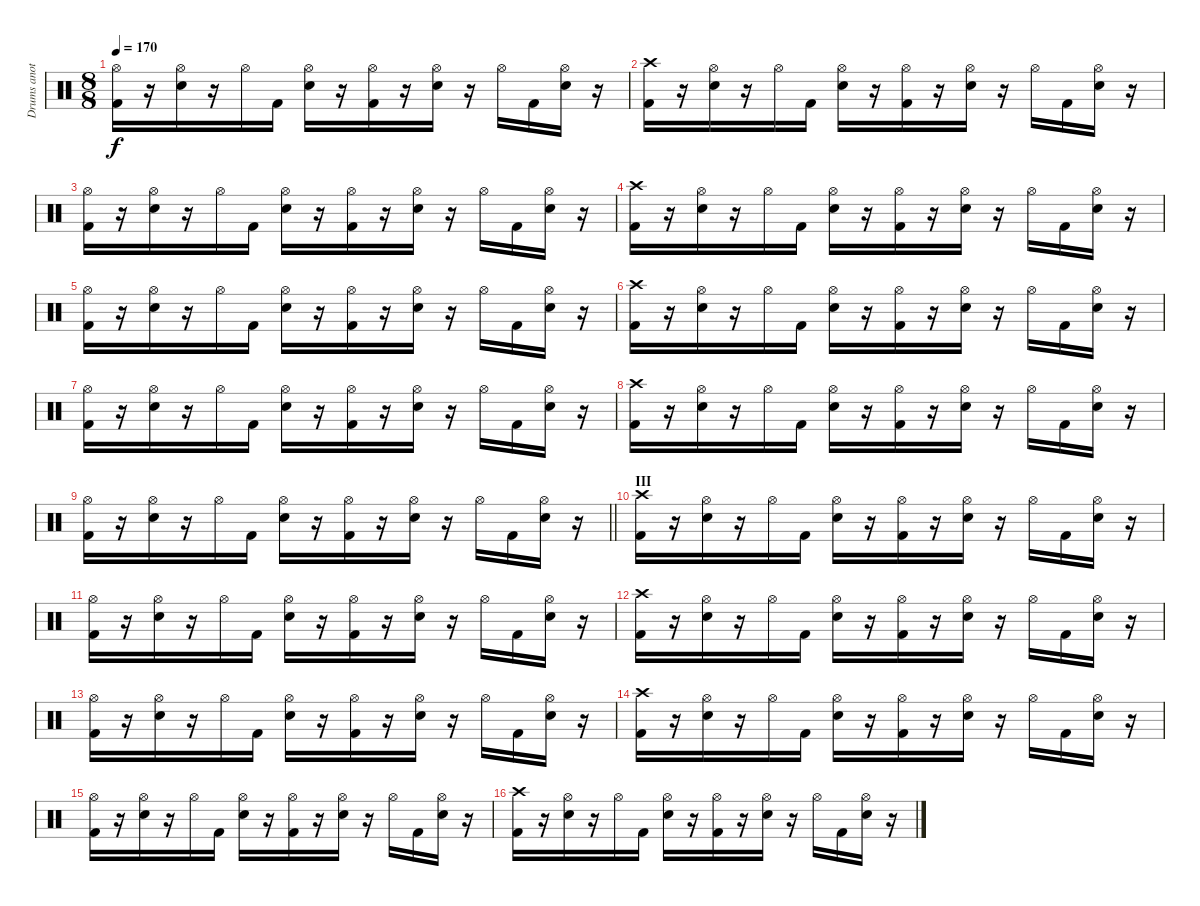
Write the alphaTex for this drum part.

\track ("Drums another version" "Drums anot") {mute instrument percussion}
\staff {score}
\articulation defaults
\ts (8 8)
\tempo 170
\clef neutral
\ks c
("Hi-Hat (open)" "Kick (hit) 2").16{dy f} r.16 ("Hi-Hat (open)" "Snare (hit) 2").16 r.16 "Hi-Hat (open)".16 "Kick (hit) 2".16 ("Hi-Hat (open)" "Snare (hit) 2").16 r.16 ("Hi-Hat (open)" "Kick (hit) 2").16 r.16 ("Hi-Hat (open)" "Snare (hit) 2").16 r.16 "Hi-Hat (open)".16 "Kick (hit) 2".16 ("Hi-Hat (open)" "Snare (hit) 2").16 r.16 |
("Crash high (hit)" "Kick (hit) 2").16 r.16 ("Hi-Hat (open)" "Snare (hit) 2").16 r.16 "Hi-Hat (open)".16 "Kick (hit) 2".16 ("Hi-Hat (open)" "Snare (hit) 2").16 r.16 ("Hi-Hat (open)" "Kick (hit) 2").16 r.16 ("Hi-Hat (open)" "Snare (hit) 2").16 r.16 "Hi-Hat (open)".16 "Kick (hit) 2".16 ("Hi-Hat (open)" "Snare (hit) 2").16 r.16 |
("Hi-Hat (open)" "Kick (hit) 2").16 r.16 ("Hi-Hat (open)" "Snare (hit) 2").16 r.16 "Hi-Hat (open)".16 "Kick (hit) 2".16 ("Hi-Hat (open)" "Snare (hit) 2").16 r.16 ("Hi-Hat (open)" "Kick (hit) 2").16 r.16 ("Hi-Hat (open)" "Snare (hit) 2").16 r.16 "Hi-Hat (open)".16 "Kick (hit) 2".16 ("Hi-Hat (open)" "Snare (hit) 2").16 r.16 |
("Crash high (hit)" "Kick (hit) 2").16 r.16 ("Hi-Hat (open)" "Snare (hit) 2").16 r.16 "Hi-Hat (open)".16 "Kick (hit) 2".16 ("Hi-Hat (open)" "Snare (hit) 2").16 r.16 ("Hi-Hat (open)" "Kick (hit) 2").16 r.16 ("Hi-Hat (open)" "Snare (hit) 2").16 r.16 "Hi-Hat (open)".16 "Kick (hit) 2".16 ("Hi-Hat (open)" "Snare (hit) 2").16 r.16 |
("Hi-Hat (open)" "Kick (hit) 2").16 r.16 ("Hi-Hat (open)" "Snare (hit) 2").16 r.16 "Hi-Hat (open)".16 "Kick (hit) 2".16 ("Hi-Hat (open)" "Snare (hit) 2").16 r.16 ("Hi-Hat (open)" "Kick (hit) 2").16 r.16 ("Hi-Hat (open)" "Snare (hit) 2").16 r.16 "Hi-Hat (open)".16 "Kick (hit) 2".16 ("Hi-Hat (open)" "Snare (hit) 2").16 r.16 |
("Crash high (hit)" "Kick (hit) 2").16 r.16 ("Hi-Hat (open)" "Snare (hit) 2").16 r.16 "Hi-Hat (open)".16 "Kick (hit) 2".16 ("Hi-Hat (open)" "Snare (hit) 2").16 r.16 ("Hi-Hat (open)" "Kick (hit) 2").16 r.16 ("Hi-Hat (open)" "Snare (hit) 2").16 r.16 "Hi-Hat (open)".16 "Kick (hit) 2".16 ("Hi-Hat (open)" "Snare (hit) 2").16 r.16 |
("Hi-Hat (open)" "Kick (hit) 2").16 r.16 ("Hi-Hat (open)" "Snare (hit) 2").16 r.16 "Hi-Hat (open)".16 "Kick (hit) 2".16 ("Hi-Hat (open)" "Snare (hit) 2").16 r.16 ("Hi-Hat (open)" "Kick (hit) 2").16 r.16 ("Hi-Hat (open)" "Snare (hit) 2").16 r.16 "Hi-Hat (open)".16 "Kick (hit) 2".16 ("Hi-Hat (open)" "Snare (hit) 2").16 r.16 |
("Crash high (hit)" "Kick (hit) 2").16 r.16 ("Hi-Hat (open)" "Snare (hit) 2").16 r.16 "Hi-Hat (open)".16 "Kick (hit) 2".16 ("Hi-Hat (open)" "Snare (hit) 2").16 r.16 ("Hi-Hat (open)" "Kick (hit) 2").16 r.16 ("Hi-Hat (open)" "Snare (hit) 2").16 r.16 "Hi-Hat (open)".16 "Kick (hit) 2".16 ("Hi-Hat (open)" "Snare (hit) 2").16 r.16 |
\barLineRight lightlight
("Hi-Hat (open)" "Kick (hit) 2").16 r.16 ("Hi-Hat (open)" "Snare (hit) 2").16 r.16 "Hi-Hat (open)".16 "Kick (hit) 2".16 ("Hi-Hat (open)" "Snare (hit) 2").16 r.16 ("Hi-Hat (open)" "Kick (hit) 2").16 r.16 ("Hi-Hat (open)" "Snare (hit) 2").16 r.16 "Hi-Hat (open)".16 "Kick (hit) 2".16 ("Hi-Hat (open)" "Snare (hit) 2").16 r.16 |
\section ("" "III")
("Crash high (hit)" "Kick (hit) 2").16 r.16 ("Hi-Hat (open)" "Snare (hit) 2").16 r.16 "Hi-Hat (open)".16 "Kick (hit) 2".16 ("Hi-Hat (open)" "Snare (hit) 2").16 r.16 ("Hi-Hat (open)" "Kick (hit) 2").16 r.16 ("Hi-Hat (open)" "Snare (hit) 2").16 r.16 "Hi-Hat (open)".16 "Kick (hit) 2".16 ("Hi-Hat (open)" "Snare (hit) 2").16 r.16 |
("Hi-Hat (open)" "Kick (hit) 2").16 r.16 ("Hi-Hat (open)" "Snare (hit) 2").16 r.16 "Hi-Hat (open)".16 "Kick (hit) 2".16 ("Hi-Hat (open)" "Snare (hit) 2").16 r.16 ("Hi-Hat (open)" "Kick (hit) 2").16 r.16 ("Hi-Hat (open)" "Snare (hit) 2").16 r.16 "Hi-Hat (open)".16 "Kick (hit) 2".16 ("Hi-Hat (open)" "Snare (hit) 2").16 r.16 |
("Crash high (hit)" "Kick (hit) 2").16 r.16 ("Hi-Hat (open)" "Snare (hit) 2").16 r.16 "Hi-Hat (open)".16 "Kick (hit) 2".16 ("Hi-Hat (open)" "Snare (hit) 2").16 r.16 ("Hi-Hat (open)" "Kick (hit) 2").16 r.16 ("Hi-Hat (open)" "Snare (hit) 2").16 r.16 "Hi-Hat (open)".16 "Kick (hit) 2".16 ("Hi-Hat (open)" "Snare (hit) 2").16 r.16 |
("Hi-Hat (open)" "Kick (hit) 2").16 r.16 ("Hi-Hat (open)" "Snare (hit) 2").16 r.16 "Hi-Hat (open)".16 "Kick (hit) 2".16 ("Hi-Hat (open)" "Snare (hit) 2").16 r.16 ("Hi-Hat (open)" "Kick (hit) 2").16 r.16 ("Hi-Hat (open)" "Snare (hit) 2").16 r.16 "Hi-Hat (open)".16 "Kick (hit) 2".16 ("Hi-Hat (open)" "Snare (hit) 2").16 r.16 |
("Crash high (hit)" "Kick (hit) 2").16 r.16 ("Hi-Hat (open)" "Snare (hit) 2").16 r.16 "Hi-Hat (open)".16 "Kick (hit) 2".16 ("Hi-Hat (open)" "Snare (hit) 2").16 r.16 ("Hi-Hat (open)" "Kick (hit) 2").16 r.16 ("Hi-Hat (open)" "Snare (hit) 2").16 r.16 "Hi-Hat (open)".16 "Kick (hit) 2".16 ("Hi-Hat (open)" "Snare (hit) 2").16 r.16 |
("Hi-Hat (open)" "Kick (hit) 2").16 r.16 ("Hi-Hat (open)" "Snare (hit) 2").16 r.16 "Hi-Hat (open)".16 "Kick (hit) 2".16 ("Hi-Hat (open)" "Snare (hit) 2").16 r.16 ("Hi-Hat (open)" "Kick (hit) 2").16 r.16 ("Hi-Hat (open)" "Snare (hit) 2").16 r.16 "Hi-Hat (open)".16 "Kick (hit) 2".16 ("Hi-Hat (open)" "Snare (hit) 2").16 r.16 |
("Crash high (hit)" "Kick (hit) 2").16 r.16 ("Hi-Hat (open)" "Snare (hit) 2").16 r.16 "Hi-Hat (open)".16 "Kick (hit) 2".16 ("Hi-Hat (open)" "Snare (hit) 2").16 r.16 ("Hi-Hat (open)" "Kick (hit) 2").16 r.16 ("Hi-Hat (open)" "Snare (hit) 2").16 r.16 "Hi-Hat (open)".16 "Kick (hit) 2".16 ("Hi-Hat (open)" "Snare (hit) 2").16 r.16
